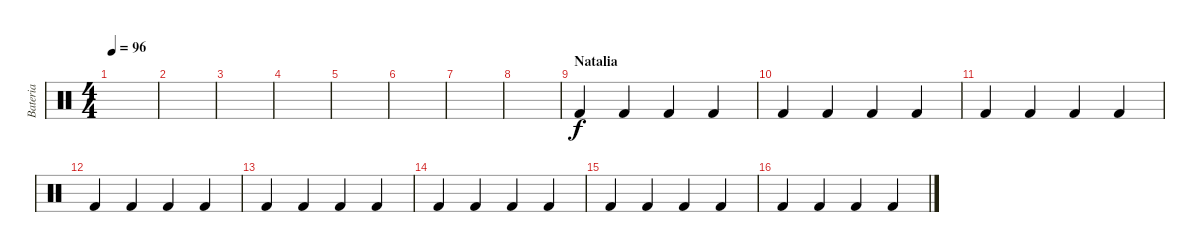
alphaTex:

\track ("Bateria" "Bateria") {instrument percussion}
\staff {score}
\articulation defaults
\ts (4 4)
\tempo 96
\clef neutral
\ks c
|
|
|
|
|
|
|
|
\section ("" "Natalia")
"Kick (hit) 2".4 "Kick (hit) 2".4 "Kick (hit) 2".4 "Kick (hit) 2".4 |
"Kick (hit) 2".4 "Kick (hit) 2".4 "Kick (hit) 2".4 "Kick (hit) 2".4 |
"Kick (hit) 2".4 "Kick (hit) 2".4 "Kick (hit) 2".4 "Kick (hit) 2".4 |
"Kick (hit) 2".4 "Kick (hit) 2".4 "Kick (hit) 2".4 "Kick (hit) 2".4 |
"Kick (hit) 2".4 "Kick (hit) 2".4 "Kick (hit) 2".4 "Kick (hit) 2".4 |
"Kick (hit) 2".4 "Kick (hit) 2".4 "Kick (hit) 2".4 "Kick (hit) 2".4 |
"Kick (hit) 2".4 "Kick (hit) 2".4 "Kick (hit) 2".4 "Kick (hit) 2".4 |
"Kick (hit) 2".4 "Kick (hit) 2".4 "Kick (hit) 2".4 "Kick (hit) 2".4
